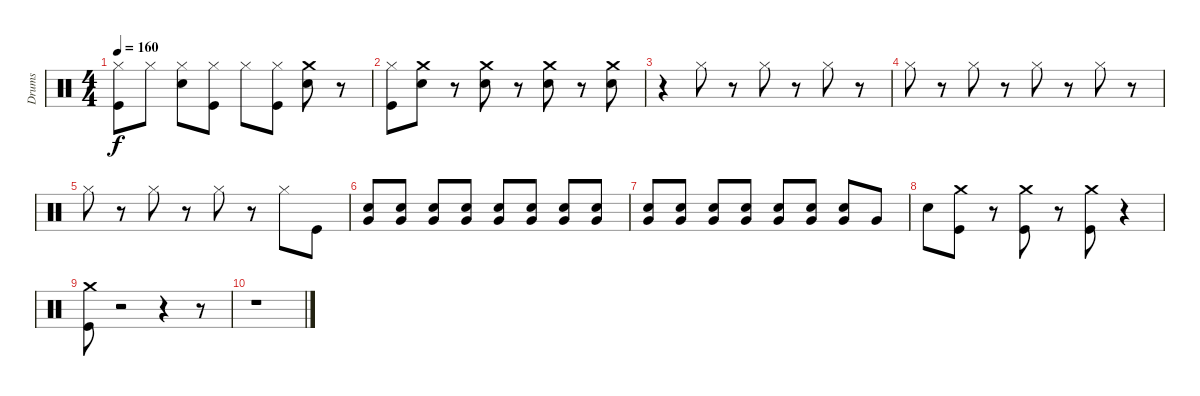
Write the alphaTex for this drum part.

\track ("Drums" "Drums") {instrument percussion}
\staff {score}
\articulation defaults
\ts (4 4)
\tempo 160
\clef neutral
\ks c
("Hi-Hat (closed)" "Kick (hit)").8{dy f} "Hi-Hat (closed)".8 ("Snare (hit) 2" "Hi-Hat (closed)").8 ("Kick (hit)" "Hi-Hat (closed)").8 "Hi-Hat (closed)".8 ("Kick (hit)" "Hi-Hat (closed)").8 ("Crash medium (hit)" "Snare (hit) 2").8 r.8 |
("Kick (hit)" "Hi-Hat (closed)").8 ("Crash medium (hit)" "Snare (hit) 2").8 r.8 ("Snare (hit) 2" "Crash medium (hit)").8 r.8 ("Snare (hit) 2" "Crash medium (hit)").8 r.8 ("Snare (hit) 2" "Crash medium (hit)").8 |
r.4 "Hi-Hat (closed)".8 r.8 "Hi-Hat (closed)".8 r.8 "Hi-Hat (closed)".8 r.8 |
"Hi-Hat (closed)".8 r.8 "Hi-Hat (closed)".8 r.8 "Hi-Hat (closed)".8 r.8 "Hi-Hat (closed)".8 r.8 |
"Hi-Hat (closed)".8 r.8 "Hi-Hat (closed)".8 r.8 "Hi-Hat (closed)".8 r.8 "Hi-Hat (closed)".8 "Kick (hit)".8 |
("Snare (hit) 2" "Very Low Tom (hit)").8 ("Snare (hit) 2" "Very Low Tom (hit)").8 ("Snare (hit) 2" "Very Low Tom (hit)").8 ("Snare (hit) 2" "Very Low Tom (hit)").8 ("Snare (hit) 2" "Very Low Tom (hit)").8 ("Snare (hit) 2" "Very Low Tom (hit)").8 ("Snare (hit) 2" "Very Low Tom (hit)").8 ("Snare (hit) 2" "Very Low Tom (hit)").8 |
("Snare (hit) 2" "Very Low Tom (hit)").8 ("Snare (hit) 2" "Very Low Tom (hit)").8 ("Snare (hit) 2" "Very Low Tom (hit)").8 ("Snare (hit) 2" "Very Low Tom (hit)").8 ("Snare (hit) 2" "Very Low Tom (hit)").8 ("Snare (hit) 2" "Very Low Tom (hit)").8 ("Snare (hit) 2" "Very Low Tom (hit)").8 "Very Low Tom (hit)".8 |
"Snare (hit) 2".8 ("Crash medium (hit)" "Kick (hit)").8 r.8 ("Kick (hit)" "Crash medium (hit)").8 r.8 ("Crash medium (hit)" "Kick (hit)").8 r.4 |
("Crash medium (hit)" "Kick (hit)").8 r.2 r.4 r.8 |
r.1
